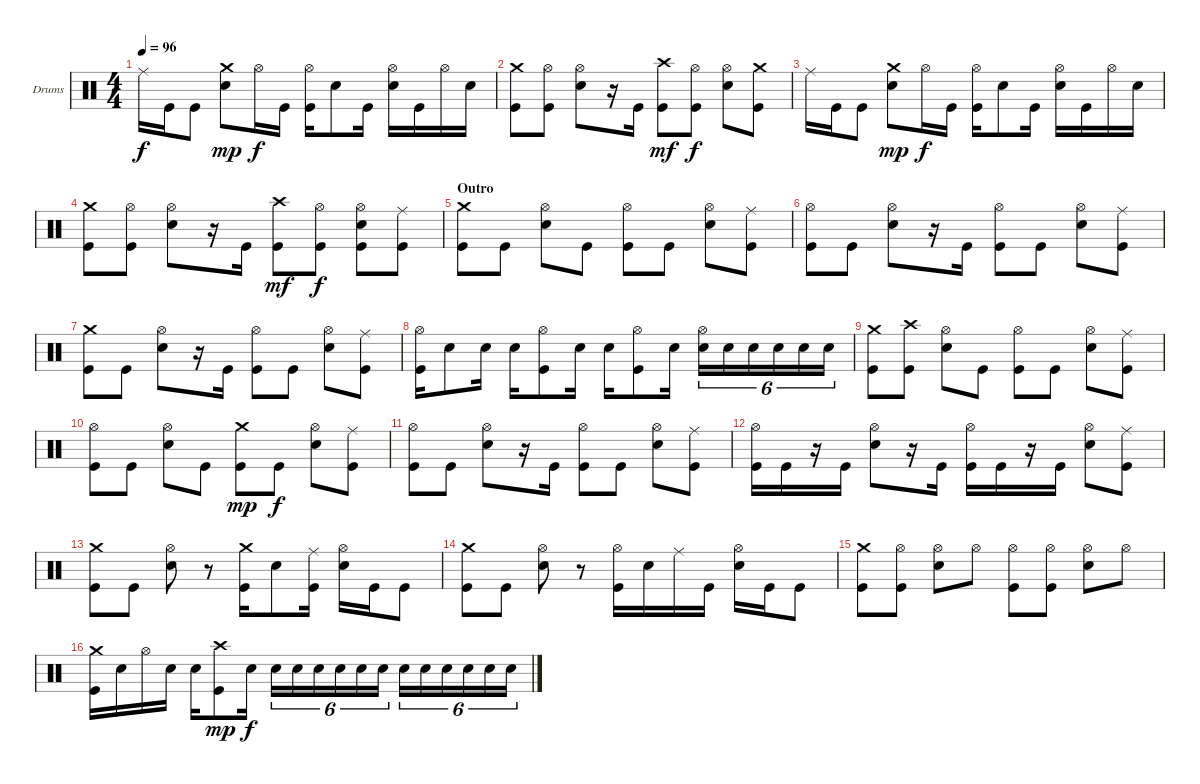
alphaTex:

\defaultSystemsLayout 4
\bracketExtendMode nobrackets
\firstSystemTrackNameOrientation horizontal
\otherSystemsTrackNameOrientation horizontal
\track ("Dave Abbruzzese" "Drums") {solo instrument percussion}
\staff {score}
\articulation defaults
\ts (4 4)
\tempo 96
\clef neutral
\ks c "Ride (middle)".16{dy f} "Kick (hit)".16 "Kick (hit)".8
("Crash medium (hit)" "Snare (hit) 2").8{dy mp} "Hi-Hat (open)".16{dy f} "Kick (hit)".16 ("Hi-Hat (open)" "Kick (hit)").16 "Snare (hit) 2".8 "Kick (hit)".16 ("Hi-Hat (open)" "Snare (hit) 2").16 "Kick (hit)".16 "Hi-Hat (open)".16 "Snare (hit) 2".16 |
("Crash medium (hit)" "Kick (hit)").8 ("Hi-Hat (open)" "Kick (hit)").8 ("Hi-Hat (open)" "Snare (hit) 2").8 r.16 "Kick (hit)".16 ("Crash high (hit)" "Kick (hit)").8{dy mf} ("Hi-Hat (open)" "Kick (hit)").8{dy f} ("Hi-Hat (open)" "Snare (hit) 2").8 ("Crash medium (hit)" "Kick (hit)").8 |
"Ride (middle)".16 "Kick (hit)".16 "Kick (hit)".8 ("Crash medium (hit)" "Snare (hit) 2").8{dy mp} "Hi-Hat (open)".16{dy f} "Kick (hit)".16 ("Hi-Hat (open)" "Kick (hit)").16 "Snare (hit) 2".8 "Kick (hit)".16 ("Hi-Hat (open)" "Snare (hit) 2").16 "Kick (hit)".16 "Hi-Hat (open)".16 "Snare (hit) 2".16 |
("Crash medium (hit)" "Kick (hit)").8 ("Hi-Hat (open)" "Kick (hit)").8 ("Hi-Hat (open)" "Snare (hit) 2").8 r.16 "Kick (hit)".16 ("Crash high (hit)" "Kick (hit)").8{dy mf} ("Hi-Hat (open)" "Kick (hit)").8{dy f} ("Hi-Hat (open)" "Snare (hit) 2" "Kick (hit)").8 ("Ride (middle)" "Kick (hit)").8 |
\section ("" "Outro")
("Crash medium (hit)" "Kick (hit)").8 "Kick (hit)".8 ("Hi-Hat (open)" "Snare (hit) 2").8 "Kick (hit)".8 ("Hi-Hat (open)" "Kick (hit)").8 "Kick (hit)".8 ("Hi-Hat (open)" "Snare (hit) 2").8 ("Ride (middle)" "Kick (hit)").8 |
("Hi-Hat (open)" "Kick (hit)").8 "Kick (hit)".8 ("Hi-Hat (open)" "Snare (hit) 2").8 r.16 "Kick (hit)".16 ("Hi-Hat (open)" "Kick (hit)").8 "Kick (hit)".8 ("Hi-Hat (open)" "Snare (hit) 2").8 ("Ride (middle)" "Kick (hit)").8 |
("Crash medium (hit)" "Kick (hit)").8 "Kick (hit)".8 ("Hi-Hat (open)" "Snare (hit) 2").8 r.16 "Kick (hit)".16 ("Hi-Hat (open)" "Kick (hit)").8 "Kick (hit)".8 ("Hi-Hat (open)" "Snare (hit) 2").8 ("Ride (middle)" "Kick (hit)").8 |
("Hi-Hat (open)" "Kick (hit)").16 "Snare (hit) 2".8 "Snare (hit) 2".16 "Snare (hit) 2".16 ("Hi-Hat (open)" "Kick (hit)").8 "Snare (hit) 2".16 "Snare (hit) 2".16 ("Hi-Hat (open)" "Kick (hit)").8 "Snare (hit) 2".16 ("Hi-Hat (open)" "Snare (hit) 2").16{tu (6 4)} "Snare (hit) 2".16{tu (6 4)} "Snare (hit) 2".16{tu (6 4)} "Snare (hit) 2".16{tu (6 4)} "Snare (hit) 2".16{tu (6 4)} "Snare (hit) 2".16{tu (6 4)} |
("Crash medium (hit)" "Kick (hit)").8 ("Crash high (hit)" "Kick (hit)").8 ("Hi-Hat (open)" "Snare (hit) 2").8 "Kick (hit)".8 ("Hi-Hat (open)" "Kick (hit)").8 "Kick (hit)".8 ("Hi-Hat (open)" "Snare (hit) 2").8 ("Ride (middle)" "Kick (hit)").8 |
("Hi-Hat (open)" "Kick (hit)").8 "Kick (hit)".8 ("Hi-Hat (open)" "Snare (hit) 2").8 "Kick (hit)".8 ("Crash medium (hit)" "Kick (hit)").8{dy mp} "Kick (hit)".8{dy f} ("Hi-Hat (open)" "Snare (hit) 2").8 ("Ride (middle)" "Kick (hit)").8 |
("Hi-Hat (open)" "Kick (hit)").8 "Kick (hit)".8 ("Hi-Hat (open)" "Snare (hit) 2").8 r.16 "Kick (hit)".16 ("Hi-Hat (open)" "Kick (hit)").8 "Kick (hit)".8 ("Hi-Hat (open)" "Snare (hit) 2").8 ("Ride (middle)" "Kick (hit)").8 |
("Hi-Hat (open)" "Kick (hit)").16 "Kick (hit)".16 r.16 "Kick (hit)".16 ("Hi-Hat (open)" "Snare (hit) 2").8 r.16 "Kick (hit)".16 ("Hi-Hat (open)" "Kick (hit)").16 "Kick (hit)".16 r.16 "Kick (hit)".16 ("Hi-Hat (open)" "Snare (hit) 2").8 ("Ride (middle)" "Kick (hit)").8 |
("Crash medium (hit)" "Kick (hit)").8 "Kick (hit)".8 ("Hi-Hat (open)" "Snare (hit) 2").8 r.8 ("Crash medium (hit)" "Kick (hit)").16 "Snare (hit) 2".8 ("Ride (middle)" "Kick (hit)").16 ("Hi-Hat (open)" "Snare (hit) 2").16 "Kick (hit)".16 "Kick (hit)".8 |
("Crash medium (hit)" "Kick (hit)").8 "Kick (hit)".8 ("Hi-Hat (open)" "Snare (hit) 2").8 r.8 ("Hi-Hat (open)" "Kick (hit)").16 "Snare (hit) 2".16 "Ride (middle)".16 "Kick (hit)".16 ("Hi-Hat (open)" "Snare (hit) 2").16 "Kick (hit)".16 "Kick (hit)".8 |
("Crash medium (hit)" "Kick (hit)").8 ("Hi-Hat (open)" "Kick (hit)").8 ("Hi-Hat (open)" "Snare (hit) 2").8 "Hi-Hat (open)".8 ("Hi-Hat (open)" "Kick (hit)").8 ("Hi-Hat (open)" "Kick (hit)").8 ("Hi-Hat (open)" "Snare (hit) 2").8 "Hi-Hat (open)".8 |
("Crash medium (hit)" "Kick (hit)").16 "Snare (hit) 2".16 "Hi-Hat (open)".16 "Snare (hit) 2".16 "Snare (hit) 2".16 ("Crash high (hit)" "Kick (hit)").8{dy mp} "Snare (hit) 2".16{dy f} "Snare (hit) 2".16{tu (6 4)} "Snare (hit) 2".16{tu (6 4)} "Snare (hit) 2".16{tu (6 4)} "Snare (hit) 2".16{tu (6 4)} "Snare (hit) 2".16{tu (6 4)} "Snare (hit) 2".16{tu (6 4)} "Snare (hit) 2".16{tu (6 4)} "Snare (hit) 2".16{tu (6 4)} "Snare (hit) 2".16{tu (6 4)} "Snare (hit) 2".16{tu (6 4)} "Snare (hit) 2".16{tu (6 4)} "Snare (hit) 2".16{tu (6 4)}
